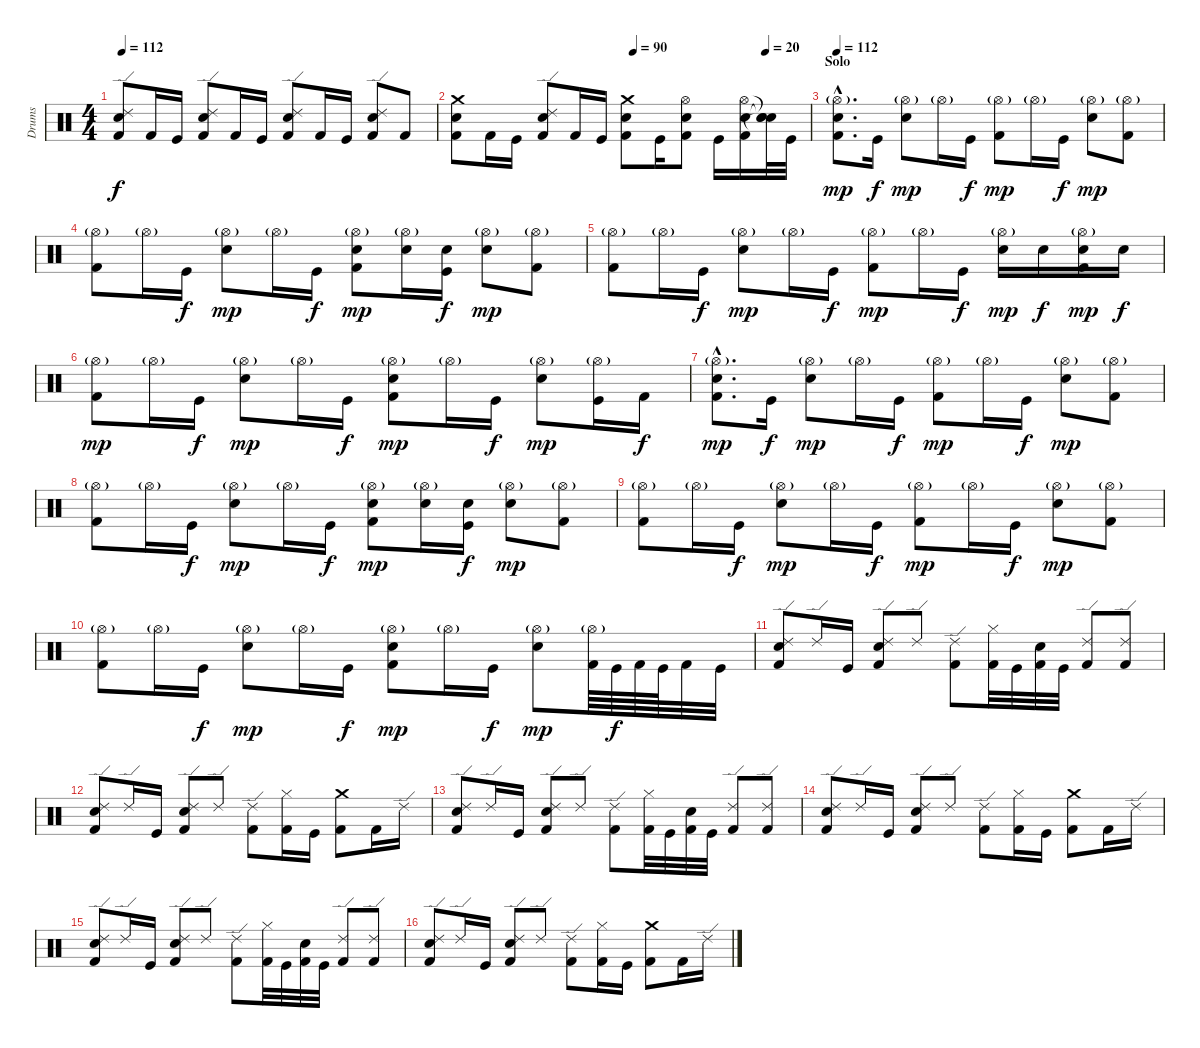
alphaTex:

\track ("Drums" "Drums") {instrument percussion}
\staff {score}
\articulation defaults
\ts (4 4)
\tempo 112
\clef neutral
\ks c
("Ride (edge) 2" "Snare (hit) 2" "Kick (hit) 2").8{dy f} "Kick (hit) 2".16 "Kick (hit)".16 ("Ride (edge) 2" "Snare (hit) 2" "Kick (hit) 2").8 "Kick (hit) 2".16 "Kick (hit)".16 ("Ride (edge) 2" "Snare (hit) 2" "Kick (hit) 2").8 "Kick (hit) 2".16 "Kick (hit)".16 ("Ride (edge) 2" "Snare (hit) 2" "Kick (hit) 2").8 "Kick (hit) 2".8 |
\tempo (90 0.5)
\tempo (20 0.875)
("Crash medium (hit)" "Snare (hit) 2" "Kick (hit) 2").8 "Kick (hit) 2".16 "Kick (hit)".16 ("Ride (edge) 2" "Snare (hit) 2" "Kick (hit) 2").8 "Kick (hit) 2".16 "Kick (hit)".16 ("Crash medium (hit)" "Snare (hit) 2" "Kick (hit) 2").8 "Kick (hit)".16 ("Hi-Hat (open)" "Snare (hit) 2" "Kick (hit) 2").8 "Kick (hit)".16 ("Hi-Hat (open)" "Snare (hit) 2" "Kick (hit) 2").16 ("Snare (hit)"{t} "Snare (hit)"{t} "Snare (hit)"{t}).32 "Kick (hit)".32 |
\section ("" "Solo")
\tempo 112
("Hi-Hat (open)"{g hac} "Snare (hit) 2"{hac} "Kick (hit) 2"{hac}).8{d dy mp} "Kick (hit)".16{dy f} ("Hi-Hat (open)"{g} "Snare (hit) 2").8{dy mp} "Hi-Hat (open)"{g}.16 "Kick (hit)".16{dy f} ("Hi-Hat (open)"{g} "Kick (hit) 2").8{dy mp} "Hi-Hat (open)"{g}.16 "Kick (hit)".16{dy f} ("Hi-Hat (open)"{g} "Snare (hit) 2").8{dy mp} ("Hi-Hat (open)"{g} "Kick (hit) 2").8 |
("Hi-Hat (open)"{g} "Kick (hit) 2").8 "Hi-Hat (open)"{g}.16 "Kick (hit)".16{dy f} ("Hi-Hat (open)"{g} "Snare (hit) 2").8{dy mp} "Hi-Hat (open)"{g}.16 "Kick (hit)".16{dy f} ("Hi-Hat (open)"{g} "Snare (hit) 2" "Kick (hit) 2").8{dy mp} ("Hi-Hat (open)"{g} "Snare (hit) 2").16 ("Snare (hit) 2" "Kick (hit)").16{dy f} ("Hi-Hat (open)"{g} "Snare (hit) 2").8{dy mp} ("Hi-Hat (open)"{g} "Kick (hit) 2").8 |
("Hi-Hat (open)"{g} "Kick (hit) 2").8 "Hi-Hat (open)"{g}.16 "Kick (hit)".16{dy f} ("Hi-Hat (open)"{g} "Snare (hit) 2").8{dy mp} "Hi-Hat (open)"{g}.16 "Kick (hit)".16{dy f} ("Hi-Hat (open)"{g} "Kick (hit) 2").8{dy mp} "Hi-Hat (open)"{g}.16 "Kick (hit)".16{dy f} ("Hi-Hat (open)"{g} "Snare (hit) 2").16{dy mp} "Snare (hit) 2".16{dy f} ("Hi-Hat (open)"{g} "Snare (hit) 2" "Kick (hit) 2").16{dy mp} "Snare (hit) 2".16{dy f} |
("Hi-Hat (open)"{g} "Kick (hit) 2").8{dy mp} "Hi-Hat (open)"{g}.16 "Kick (hit)".16{dy f} ("Hi-Hat (open)"{g} "Snare (hit) 2").8{dy mp} "Hi-Hat (open)"{g}.16 "Kick (hit)".16{dy f} ("Hi-Hat (open)"{g} "Snare (hit) 2" "Kick (hit) 2").8{dy mp} "Hi-Hat (open)"{g}.16 "Kick (hit)".16{dy f} ("Hi-Hat (open)"{g} "Snare (hit) 2").8{dy mp} ("Hi-Hat (open)"{g} "Kick (hit)").16 "Kick (hit) 2".16{dy f} |
("Hi-Hat (open)"{g hac} "Snare (hit) 2"{hac} "Kick (hit) 2"{hac}).8{d dy mp} "Kick (hit)".16{dy f} ("Hi-Hat (open)"{g} "Snare (hit) 2").8{dy mp} "Hi-Hat (open)"{g}.16 "Kick (hit)".16{dy f} ("Hi-Hat (open)"{g} "Kick (hit) 2").8{dy mp} "Hi-Hat (open)"{g}.16 "Kick (hit)".16{dy f} ("Hi-Hat (open)"{g} "Snare (hit) 2").8{dy mp} ("Hi-Hat (open)"{g} "Kick (hit) 2").8 |
("Hi-Hat (open)"{g} "Kick (hit) 2").8 "Hi-Hat (open)"{g}.16 "Kick (hit)".16{dy f} ("Hi-Hat (open)"{g} "Snare (hit) 2").8{dy mp} "Hi-Hat (open)"{g}.16 "Kick (hit)".16{dy f} ("Hi-Hat (open)"{g} "Snare (hit) 2" "Kick (hit) 2").8{dy mp} ("Hi-Hat (open)"{g} "Snare (hit) 2").16 ("Snare (hit) 2" "Kick (hit)").16{dy f} ("Hi-Hat (open)"{g} "Snare (hit) 2").8{dy mp} ("Hi-Hat (open)"{g} "Kick (hit) 2").8 |
("Hi-Hat (open)"{g} "Kick (hit) 2").8 "Hi-Hat (open)"{g}.16 "Kick (hit)".16{dy f} ("Hi-Hat (open)"{g} "Snare (hit) 2").8{dy mp} "Hi-Hat (open)"{g}.16 "Kick (hit)".16{dy f} ("Hi-Hat (open)"{g} "Kick (hit) 2").8{dy mp} "Hi-Hat (open)"{g}.16 "Kick (hit)".16{dy f} ("Hi-Hat (open)"{g} "Snare (hit) 2").8{dy mp} ("Hi-Hat (open)"{g} "Kick (hit) 2").8 |
("Hi-Hat (open)"{g} "Kick (hit) 2").8 "Hi-Hat (open)"{g}.16 "Kick (hit)".16{dy f} ("Hi-Hat (open)"{g} "Snare (hit) 2").8{dy mp} "Hi-Hat (open)"{g}.16 "Kick (hit)".16{dy f} ("Hi-Hat (open)"{g} "Snare (hit) 2" "Kick (hit) 2").8{dy mp} "Hi-Hat (open)"{g}.16 "Kick (hit)".16{dy f} ("Hi-Hat (open)"{g} "Snare (hit) 2").8{dy mp} ("Hi-Hat (open)"{g} "Kick (hit) 2").64 "Kick (hit)".64{dy f} "Kick (hit) 2".64 "Kick (hit)".64 "Kick (hit) 2".32 "Kick (hit)".32 |
("Ride (edge) 2" "Snare (hit) 2" "Kick (hit) 2").8 "Ride (edge) 2".16 "Kick (hit)".16 ("Ride (edge) 2" "Snare (hit) 2" "Kick (hit) 2").8 "Ride (edge) 2".8 ("Ride (edge) 2" "Kick (hit) 2").8 ("Hi-Hat (closed)" "Kick (hit) 2").32 "Kick (hit)".32 ("Snare (hit) 2" "Kick (hit) 2").32 "Kick (hit)".32 ("Ride (edge) 2" "Kick (hit) 2").8 ("Ride (edge) 2" "Kick (hit) 2").8 |
("Ride (edge) 2" "Snare (hit) 2" "Kick (hit) 2").8 "Ride (edge) 2".16 "Kick (hit)".16 ("Ride (edge) 2" "Snare (hit) 2" "Kick (hit) 2").8 "Ride (edge) 2".8 ("Ride (edge) 2" "Kick (hit) 2").8 ("Hi-Hat (closed)" "Kick (hit) 2").16 "Kick (hit)".16 ("Crash medium (hit)" "Kick (hit) 2").8 "Kick (hit) 2".16 "Ride (edge) 2".16 |
("Ride (edge) 2" "Snare (hit) 2" "Kick (hit) 2").8 "Ride (edge) 2".16 "Kick (hit)".16 ("Ride (edge) 2" "Snare (hit) 2" "Kick (hit) 2").8 "Ride (edge) 2".8 ("Ride (edge) 2" "Kick (hit) 2").8 ("Hi-Hat (closed)" "Kick (hit) 2").32 "Kick (hit)".32 ("Snare (hit) 2" "Kick (hit) 2").32 "Kick (hit)".32 ("Ride (edge) 2" "Kick (hit) 2").8 ("Ride (edge) 2" "Kick (hit) 2").8 |
("Ride (edge) 2" "Snare (hit) 2" "Kick (hit) 2").8 "Ride (edge) 2".16 "Kick (hit)".16 ("Ride (edge) 2" "Snare (hit) 2" "Kick (hit) 2").8 "Ride (edge) 2".8 ("Ride (edge) 2" "Kick (hit) 2").8 ("Hi-Hat (closed)" "Kick (hit) 2").16 "Kick (hit)".16 ("Crash medium (hit)" "Kick (hit) 2").8 "Kick (hit) 2".16 "Ride (edge) 2".16 |
("Ride (edge) 2" "Snare (hit) 2" "Kick (hit) 2").8 "Ride (edge) 2".16 "Kick (hit)".16 ("Ride (edge) 2" "Snare (hit) 2" "Kick (hit) 2").8 "Ride (edge) 2".8 ("Ride (edge) 2" "Kick (hit) 2").8 ("Hi-Hat (closed)" "Kick (hit) 2").32 "Kick (hit)".32 ("Snare (hit) 2" "Kick (hit) 2").32 "Kick (hit)".32 ("Ride (edge) 2" "Kick (hit) 2").8 ("Ride (edge) 2" "Kick (hit) 2").8 |
("Ride (edge) 2" "Snare (hit) 2" "Kick (hit) 2").8 "Ride (edge) 2".16 "Kick (hit)".16 ("Ride (edge) 2" "Snare (hit) 2" "Kick (hit) 2").8 "Ride (edge) 2".8 ("Ride (edge) 2" "Kick (hit) 2").8 ("Hi-Hat (closed)" "Kick (hit) 2").16 "Kick (hit)".16 ("Crash medium (hit)" "Kick (hit) 2").8 "Kick (hit) 2".16 "Ride (edge) 2".16
